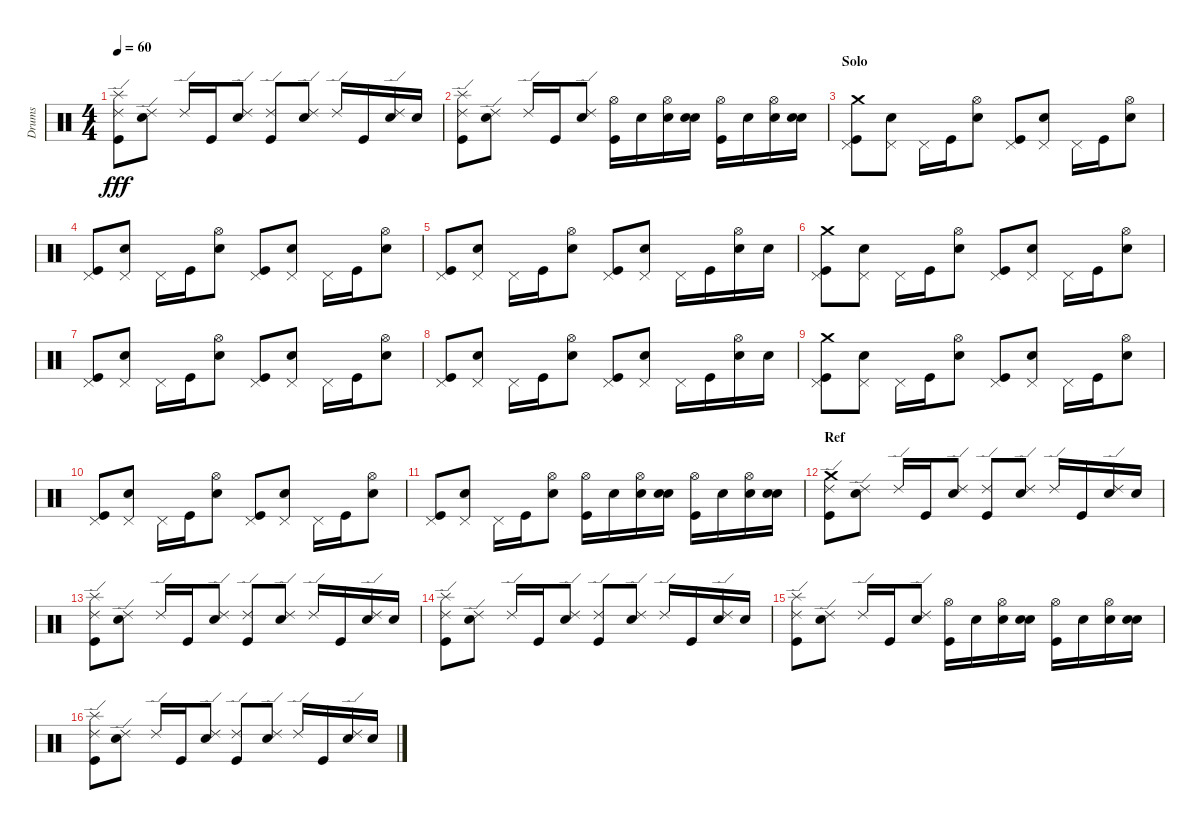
\track ("Drums" "Drums") {instrument percussion}
\staff {score}
\articulation defaults
\ts (4 4)
\tempo 60
\clef neutral
\ks c
("Ride (edge) 2" "Kick (hit)" "Splash (hit)").8{dy fff} ("Ride (edge) 2" "Snare (hit) 2").8 "Ride (edge) 2".16 "Kick (hit)".16 ("Ride (edge) 2" "Snare (hit) 2").8 ("Ride (edge) 2" "Kick (hit)").8 ("Ride (edge) 2" "Snare (hit) 2").8 "Ride (edge) 2".16 "Kick (hit)".16 ("Ride (edge) 2" "Snare (hit) 2").16 "Snare (hit) 2".16 |
("Ride (edge) 2" "Kick (hit)" "Splash (hit)").8 ("Ride (edge) 2" "Snare (hit) 2").8 "Ride (edge) 2".16 "Kick (hit)".16 ("Ride (edge) 2" "Snare (hit) 2").8 ("Hi-Hat (open)" "Kick (hit)").16 "Snare (hit) 2".16 ("Hi-Hat (open)" "Snare (hit) 2").16 ("Snare (hit) 2" "Snare (hit) 2").16 ("Hi-Hat (open)" "Kick (hit)").16 "Snare (hit) 2".16 ("Hi-Hat (open)" "Snare (hit) 2").16 ("Snare (hit) 2" "Snare (hit) 2").16 |
\section ("" "Solo")
("Pedal Hi-Hat (hit)" "Kick (hit)" "Crash medium (hit)").8 ("Pedal Hi-Hat (hit)" "Snare (hit) 2").8 "Pedal Hi-Hat (hit)".16 "Kick (hit)".16 ("Hi-Hat (open)" "Snare (hit) 2").8 ("Pedal Hi-Hat (hit)" "Kick (hit)").8 ("Pedal Hi-Hat (hit)" "Snare (hit) 2").8 "Pedal Hi-Hat (hit)".16 "Kick (hit)".16 ("Hi-Hat (open)" "Snare (hit) 2").8 |
("Pedal Hi-Hat (hit)" "Kick (hit)").8 ("Pedal Hi-Hat (hit)" "Snare (hit) 2").8 "Pedal Hi-Hat (hit)".16 "Kick (hit)".16 ("Hi-Hat (open)" "Snare (hit) 2").8 ("Pedal Hi-Hat (hit)" "Kick (hit)").8 ("Pedal Hi-Hat (hit)" "Snare (hit) 2").8 "Pedal Hi-Hat (hit)".16 "Kick (hit)".16 ("Hi-Hat (open)" "Snare (hit) 2").8 |
("Pedal Hi-Hat (hit)" "Kick (hit)").8 ("Pedal Hi-Hat (hit)" "Snare (hit) 2").8 "Pedal Hi-Hat (hit)".16 "Kick (hit)".16 ("Hi-Hat (open)" "Snare (hit) 2").8 ("Pedal Hi-Hat (hit)" "Kick (hit)").8 ("Pedal Hi-Hat (hit)" "Snare (hit) 2").8 "Pedal Hi-Hat (hit)".16 "Kick (hit)".16 ("Hi-Hat (open)" "Snare (hit) 2").16 "Snare (hit) 2".16 |
("Pedal Hi-Hat (hit)" "Kick (hit)" "Crash medium (hit)").8 ("Pedal Hi-Hat (hit)" "Snare (hit) 2").8 "Pedal Hi-Hat (hit)".16 "Kick (hit)".16 ("Hi-Hat (open)" "Snare (hit) 2").8 ("Pedal Hi-Hat (hit)" "Kick (hit)").8 ("Pedal Hi-Hat (hit)" "Snare (hit) 2").8 "Pedal Hi-Hat (hit)".16 "Kick (hit)".16 ("Hi-Hat (open)" "Snare (hit) 2").8 |
("Pedal Hi-Hat (hit)" "Kick (hit)").8 ("Pedal Hi-Hat (hit)" "Snare (hit) 2").8 "Pedal Hi-Hat (hit)".16 "Kick (hit)".16 ("Hi-Hat (open)" "Snare (hit) 2").8 ("Pedal Hi-Hat (hit)" "Kick (hit)").8 ("Pedal Hi-Hat (hit)" "Snare (hit) 2").8 "Pedal Hi-Hat (hit)".16 "Kick (hit)".16 ("Hi-Hat (open)" "Snare (hit) 2").8 |
("Pedal Hi-Hat (hit)" "Kick (hit)").8 ("Pedal Hi-Hat (hit)" "Snare (hit) 2").8 "Pedal Hi-Hat (hit)".16 "Kick (hit)".16 ("Hi-Hat (open)" "Snare (hit) 2").8 ("Pedal Hi-Hat (hit)" "Kick (hit)").8 ("Pedal Hi-Hat (hit)" "Snare (hit) 2").8 "Pedal Hi-Hat (hit)".16 "Kick (hit)".16 ("Hi-Hat (open)" "Snare (hit) 2").16 "Snare (hit) 2".16 |
("Pedal Hi-Hat (hit)" "Kick (hit)" "Crash medium (hit)").8 ("Pedal Hi-Hat (hit)" "Snare (hit) 2").8 "Pedal Hi-Hat (hit)".16 "Kick (hit)".16 ("Hi-Hat (open)" "Snare (hit) 2").8 ("Pedal Hi-Hat (hit)" "Kick (hit)").8 ("Pedal Hi-Hat (hit)" "Snare (hit) 2").8 "Pedal Hi-Hat (hit)".16 "Kick (hit)".16 ("Hi-Hat (open)" "Snare (hit) 2").8 |
("Pedal Hi-Hat (hit)" "Kick (hit)").8 ("Pedal Hi-Hat (hit)" "Snare (hit) 2").8 "Pedal Hi-Hat (hit)".16 "Kick (hit)".16 ("Hi-Hat (open)" "Snare (hit) 2").8 ("Pedal Hi-Hat (hit)" "Kick (hit)").8 ("Pedal Hi-Hat (hit)" "Snare (hit) 2").8 "Pedal Hi-Hat (hit)".16 "Kick (hit)".16 ("Hi-Hat (open)" "Snare (hit) 2").8 |
("Pedal Hi-Hat (hit)" "Kick (hit)").8 ("Pedal Hi-Hat (hit)" "Snare (hit) 2").8 "Pedal Hi-Hat (hit)".16 "Kick (hit)".16 ("Hi-Hat (open)" "Snare (hit) 2").8 ("Hi-Hat (open)" "Kick (hit)").16 "Snare (hit) 2".16 ("Hi-Hat (open)" "Snare (hit) 2").16 ("Snare (hit) 2" "Snare (hit) 2").16 ("Hi-Hat (open)" "Kick (hit)").16 "Snare (hit) 2".16 ("Hi-Hat (open)" "Snare (hit) 2").16 ("Snare (hit) 2" "Snare (hit) 2").16 |
\section ("" "Ref")
("Ride (edge) 2" "Kick (hit)" "Crash medium (hit)").8 ("Ride (edge) 2" "Snare (hit) 2").8 "Ride (edge) 2".16 "Kick (hit)".16 ("Ride (edge) 2" "Snare (hit) 2").8 ("Ride (edge) 2" "Kick (hit)").8 ("Ride (edge) 2" "Snare (hit) 2").8 "Ride (edge) 2".16 "Kick (hit)".16 ("Ride (edge) 2" "Snare (hit) 2").16 "Snare (hit) 2".16 |
("Ride (edge) 2" "Kick (hit)" "Splash (hit)").8 ("Ride (edge) 2" "Snare (hit) 2").8 "Ride (edge) 2".16 "Kick (hit)".16 ("Ride (edge) 2" "Snare (hit) 2").8 ("Ride (edge) 2" "Kick (hit)").8 ("Ride (edge) 2" "Snare (hit) 2").8 "Ride (edge) 2".16 "Kick (hit)".16 ("Ride (edge) 2" "Snare (hit) 2").16 "Snare (hit) 2".16 |
("Ride (edge) 2" "Kick (hit)" "Splash (hit)").8 ("Ride (edge) 2" "Snare (hit) 2").8 "Ride (edge) 2".16 "Kick (hit)".16 ("Ride (edge) 2" "Snare (hit) 2").8 ("Ride (edge) 2" "Kick (hit)").8 ("Ride (edge) 2" "Snare (hit) 2").8 "Ride (edge) 2".16 "Kick (hit)".16 ("Ride (edge) 2" "Snare (hit) 2").16 "Snare (hit) 2".16 |
("Ride (edge) 2" "Kick (hit)" "Splash (hit)").8 ("Ride (edge) 2" "Snare (hit) 2").8 "Ride (edge) 2".16 "Kick (hit)".16 ("Ride (edge) 2" "Snare (hit) 2").8 ("Hi-Hat (open)" "Kick (hit)").16 "Snare (hit) 2".16 ("Hi-Hat (open)" "Snare (hit) 2").16 ("Snare (hit) 2" "Snare (hit) 2").16 ("Hi-Hat (open)" "Kick (hit)").16 "Snare (hit) 2".16 ("Hi-Hat (open)" "Snare (hit) 2").16 ("Snare (hit) 2" "Snare (hit) 2").16 |
("Ride (edge) 2" "Kick (hit)" "Splash (hit)").8 ("Ride (edge) 2" "Snare (hit) 2").8 "Ride (edge) 2".16 "Kick (hit)".16 ("Ride (edge) 2" "Snare (hit) 2").8 ("Ride (edge) 2" "Kick (hit)").8 ("Ride (edge) 2" "Snare (hit) 2").8 "Ride (edge) 2".16 "Kick (hit)".16 ("Ride (edge) 2" "Snare (hit) 2").16 "Snare (hit) 2".16
